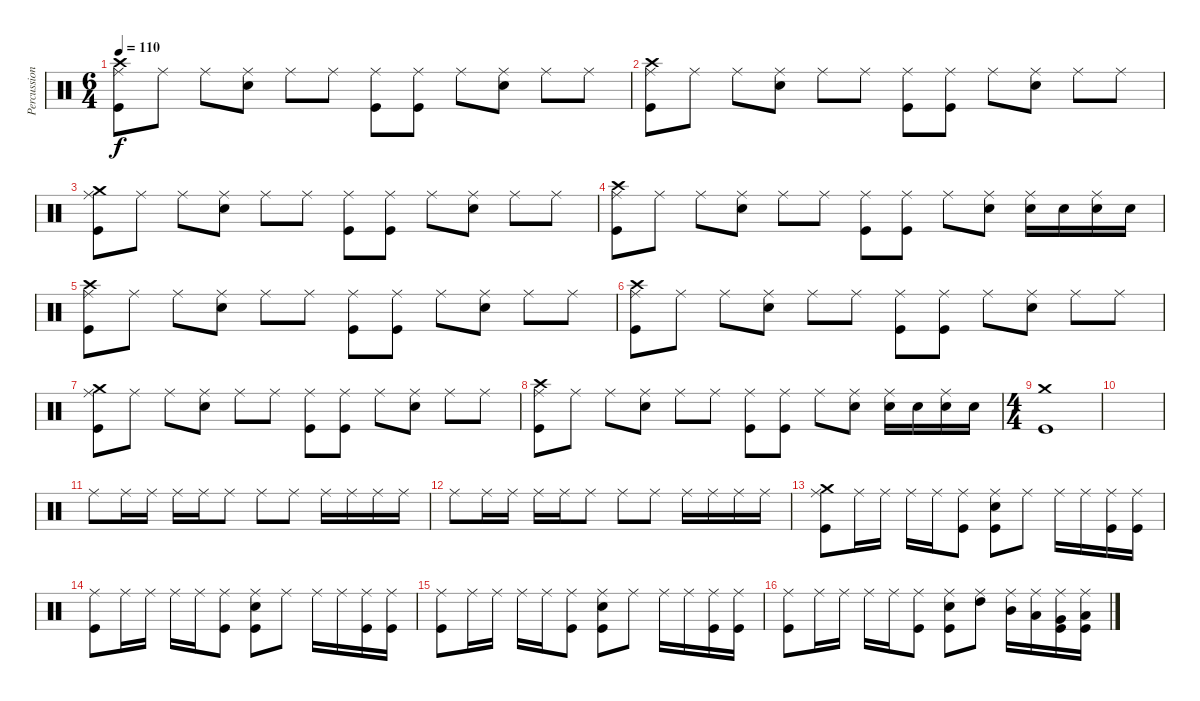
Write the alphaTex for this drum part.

\track ("Percussion" "Percussion") {instrument percussion}
\staff {score}
\articulation defaults
\ts (6 4)
\tempo 110
\clef neutral
\ks c
("Crash high (hit)" "Ride (middle)" "Kick (hit)").8{dy f} "Ride (middle)".8 "Ride (middle)".8 ("Ride (middle)" "Electric Snare (hit)").8 "Ride (middle)".8 "Ride (middle)".8 ("Ride (middle)" "Kick (hit)").8 ("Ride (middle)" "Kick (hit)").8 "Ride (middle)".8 ("Ride (middle)" "Electric Snare (hit)").8 "Ride (middle)".8 "Ride (middle)".8 |
("Crash high (hit)" "Ride (middle)" "Kick (hit)").8 "Ride (middle)".8 "Ride (middle)".8 ("Ride (middle)" "Electric Snare (hit)").8 "Ride (middle)".8 "Ride (middle)".8 ("Ride (middle)" "Kick (hit)").8 ("Ride (middle)" "Kick (hit)").8 "Ride (middle)".8 ("Ride (middle)" "Electric Snare (hit)").8 "Ride (middle)".8 "Ride (middle)".8 |
("Crash medium (hit)" "Ride (middle)" "Kick (hit)").8 "Ride (middle)".8 "Ride (middle)".8 ("Ride (middle)" "Electric Snare (hit)").8 "Ride (middle)".8 "Ride (middle)".8 ("Ride (middle)" "Kick (hit)").8 ("Ride (middle)" "Kick (hit)").8 "Ride (middle)".8 ("Ride (middle)" "Electric Snare (hit)").8 "Ride (middle)".8 "Ride (middle)".8 |
("Crash high (hit)" "Ride (middle)" "Kick (hit)").8 "Ride (middle)".8 "Ride (middle)".8 ("Ride (middle)" "Electric Snare (hit)").8 "Ride (middle)".8 "Ride (middle)".8 ("Ride (middle)" "Kick (hit)").8 ("Ride (middle)" "Kick (hit)").8 "Ride (middle)".8 ("Ride (middle)" "Electric Snare (hit)").8 ("Ride (middle)" "Electric Snare (hit)").16 "Electric Snare (hit)".16 ("Ride (middle)" "Electric Snare (hit)").16 "Electric Snare (hit)".16 |
("Crash high (hit)" "Ride (middle)" "Kick (hit)").8 "Ride (middle)".8 "Ride (middle)".8 ("Ride (middle)" "Electric Snare (hit)").8 "Ride (middle)".8 "Ride (middle)".8 ("Ride (middle)" "Kick (hit)").8 ("Ride (middle)" "Kick (hit)").8 "Ride (middle)".8 ("Ride (middle)" "Electric Snare (hit)").8 "Ride (middle)".8 "Ride (middle)".8 |
("Crash high (hit)" "Ride (middle)" "Kick (hit)").8 "Ride (middle)".8 "Ride (middle)".8 ("Ride (middle)" "Electric Snare (hit)").8 "Ride (middle)".8 "Ride (middle)".8 ("Ride (middle)" "Kick (hit)").8 ("Ride (middle)" "Kick (hit)").8 "Ride (middle)".8 ("Ride (middle)" "Electric Snare (hit)").8 "Ride (middle)".8 "Ride (middle)".8 |
("Crash medium (hit)" "Ride (middle)" "Kick (hit)").8 "Ride (middle)".8 "Ride (middle)".8 ("Ride (middle)" "Electric Snare (hit)").8 "Ride (middle)".8 "Ride (middle)".8 ("Ride (middle)" "Kick (hit)").8 ("Ride (middle)" "Kick (hit)").8 "Ride (middle)".8 ("Ride (middle)" "Electric Snare (hit)").8 "Ride (middle)".8 "Ride (middle)".8 |
("Crash high (hit)" "Ride (middle)" "Kick (hit)").8 "Ride (middle)".8 "Ride (middle)".8 ("Ride (middle)" "Electric Snare (hit)").8 "Ride (middle)".8 "Ride (middle)".8 ("Ride (middle)" "Kick (hit)").8 ("Ride (middle)" "Kick (hit)").8 "Ride (middle)".8 ("Ride (middle)" "Electric Snare (hit)").8 ("Ride (middle)" "Electric Snare (hit)").16 "Electric Snare (hit)".16 ("Ride (middle)" "Electric Snare (hit)").16 "Electric Snare (hit)".16 |
\ts (4 4)
("Crash medium (hit)" "Kick (hit)").1 |
|
"Ride (middle)".8 "Ride (middle)".16 "Ride (middle)".16 "Ride (middle)".16 "Ride (middle)".16 "Ride (middle)".8 "Ride (middle)".8 "Ride (middle)".8 "Ride (middle)".16 "Ride (middle)".16 "Ride (middle)".16 "Ride (middle)".16 |
"Ride (middle)".8 "Ride (middle)".16 "Ride (middle)".16 "Ride (middle)".16 "Ride (middle)".16 "Ride (middle)".8 "Ride (middle)".8 "Ride (middle)".8 "Ride (middle)".16 "Ride (middle)".16 "Ride (middle)".16 "Ride (middle)".16 |
("Crash medium (hit)" "Ride (middle)" "Kick (hit)").8 "Ride (middle)".16 "Ride (middle)".16 "Ride (middle)".16 "Ride (middle)".16 ("Ride (middle)" "Kick (hit)").8 ("Electric Snare (hit)" "Ride (middle)" "Kick (hit)").8 "Ride (middle)".8 "Ride (middle)".16 "Ride (middle)".16 ("Ride (middle)" "Kick (hit)").16 ("Ride (middle)" "Kick (hit)").16 |
("Ride (middle)" "Kick (hit)").8 "Ride (middle)".16 "Ride (middle)".16 "Ride (middle)".16 "Ride (middle)".16 ("Ride (middle)" "Kick (hit)").8 ("Electric Snare (hit)" "Ride (middle)" "Kick (hit)").8 "Ride (middle)".8 "Ride (middle)".16 "Ride (middle)".16 ("Ride (middle)" "Kick (hit)").16 ("Ride (middle)" "Kick (hit)").16 |
("Ride (middle)" "Kick (hit)").8 "Ride (middle)".16 "Ride (middle)".16 "Ride (middle)".16 "Ride (middle)".16 ("Ride (middle)" "Kick (hit)").8 ("Electric Snare (hit)" "Ride (middle)" "Kick (hit)").8 "Ride (middle)".8 "Ride (middle)".16 "Ride (middle)".16 ("Ride (middle)" "Kick (hit)").16 ("Ride (middle)" "Kick (hit)").16 |
("Ride (middle)" "Kick (hit)").8 "Ride (middle)".16 "Ride (middle)".16 "Ride (middle)".16 "Ride (middle)".16 ("Ride (middle)" "Kick (hit)").8 ("Electric Snare (hit)" "Ride (middle)" "Kick (hit)").8 ("High Tom (hit)" "Ride (middle)").8 ("Mid Tom (hit)" "Ride (middle)").16 ("Low Tom (hit)" "Ride (middle)").16 ("Very Low Tom (hit)" "Ride (middle)" "Kick (hit)").16 ("Low Floor Tom (hit)" "Ride (middle)" "Kick (hit)").16
